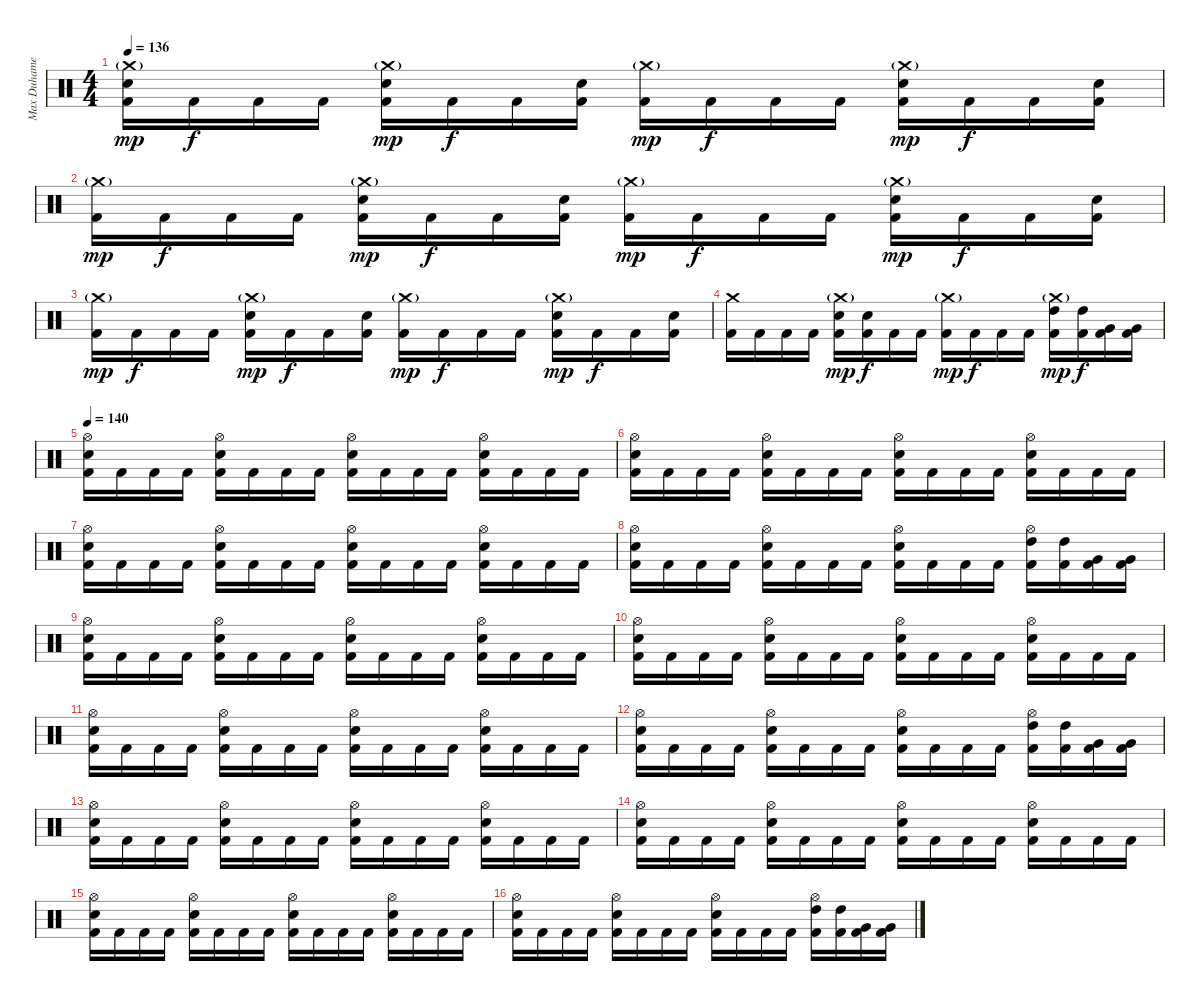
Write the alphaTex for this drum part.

\track ("Max Duhamel (Drums)" "Max Duhame") {instrument percussion}
\staff {score}
\articulation defaults
\ts (4 4)
\tempo 136
\clef neutral
\ks c
("Crash medium (hit)"{g} "Electric Snare (hit)" "Kick (hit) 2").16{dy mp} "Kick (hit) 2".16{dy f} "Kick (hit) 2".16 "Kick (hit) 2".16 ("Crash medium (hit)"{g} "Electric Snare (hit)" "Kick (hit) 2").16{dy mp} "Kick (hit) 2".16{dy f} "Kick (hit) 2".16 ("Electric Snare (hit)" "Kick (hit) 2").16 ("Crash medium (hit)"{g} "Kick (hit) 2").16{dy mp} "Kick (hit) 2".16{dy f} "Kick (hit) 2".16 "Kick (hit) 2".16 ("Crash medium (hit)"{g} "Electric Snare (hit)" "Kick (hit) 2").16{dy mp} "Kick (hit) 2".16{dy f} "Kick (hit) 2".16 ("Electric Snare (hit)" "Kick (hit) 2").16 |
("Crash medium (hit)"{g} "Kick (hit) 2").16{dy mp} "Kick (hit) 2".16{dy f} "Kick (hit) 2".16 "Kick (hit) 2".16 ("Crash medium (hit)"{g} "Electric Snare (hit)" "Kick (hit) 2").16{dy mp} "Kick (hit) 2".16{dy f} "Kick (hit) 2".16 ("Electric Snare (hit)" "Kick (hit) 2").16 ("Crash medium (hit)"{g} "Kick (hit) 2").16{dy mp} "Kick (hit) 2".16{dy f} "Kick (hit) 2".16 "Kick (hit) 2".16 ("Crash medium (hit)"{g} "Electric Snare (hit)" "Kick (hit) 2").16{dy mp} "Kick (hit) 2".16{dy f} "Kick (hit) 2".16 ("Electric Snare (hit)" "Kick (hit) 2").16 |
("Crash medium (hit)"{g} "Kick (hit) 2").16{dy mp} "Kick (hit) 2".16{dy f} "Kick (hit) 2".16 "Kick (hit) 2".16 ("Crash medium (hit)"{g} "Electric Snare (hit)" "Kick (hit) 2").16{dy mp} "Kick (hit) 2".16{dy f} "Kick (hit) 2".16 ("Electric Snare (hit)" "Kick (hit) 2").16 ("Crash medium (hit)"{g} "Kick (hit) 2").16{dy mp} "Kick (hit) 2".16{dy f} "Kick (hit) 2".16 "Kick (hit) 2".16 ("Crash medium (hit)"{g} "Electric Snare (hit)" "Kick (hit) 2").16{dy mp} "Kick (hit) 2".16{dy f} "Kick (hit) 2".16 ("Electric Snare (hit)" "Kick (hit) 2").16 |
("Crash medium (hit)" "Kick (hit) 2").16 "Kick (hit) 2".16 "Kick (hit) 2".16 "Kick (hit) 2".16 ("Crash medium (hit)"{g} "Electric Snare (hit)" "Kick (hit) 2").16{dy mp} ("Electric Snare (hit)" "Kick (hit) 2").16{dy f} "Kick (hit) 2".16 "Kick (hit) 2".16 ("Crash medium (hit)"{g} "Kick (hit) 2").16{dy mp} "Kick (hit) 2".16{dy f} "Kick (hit) 2".16 "Kick (hit) 2".16 ("Crash medium (hit)"{g} "High Tom (hit)" "Kick (hit) 2").16{dy mp} ("High Tom (hit)" "Kick (hit) 2").16{dy f} ("Very Low Tom (hit)" "Kick (hit) 2").16 ("Very Low Tom (hit)" "Kick (hit) 2").16 |
\tempo 140
("Hi-Hat (open)" "Electric Snare (hit)" "Kick (hit) 2").16 "Kick (hit) 2".16 "Kick (hit) 2".16 "Kick (hit) 2".16 ("Hi-Hat (open)" "Electric Snare (hit)" "Kick (hit) 2").16 "Kick (hit) 2".16 "Kick (hit) 2".16 "Kick (hit) 2".16 ("Hi-Hat (open)" "Electric Snare (hit)" "Kick (hit) 2").16 "Kick (hit) 2".16 "Kick (hit) 2".16 "Kick (hit) 2".16 ("Hi-Hat (open)" "Electric Snare (hit)" "Kick (hit) 2").16 "Kick (hit) 2".16 "Kick (hit) 2".16 "Kick (hit) 2".16 |
("Hi-Hat (open)" "Electric Snare (hit)" "Kick (hit) 2").16 "Kick (hit) 2".16 "Kick (hit) 2".16 "Kick (hit) 2".16 ("Hi-Hat (open)" "Electric Snare (hit)" "Kick (hit) 2").16 "Kick (hit) 2".16 "Kick (hit) 2".16 "Kick (hit) 2".16 ("Hi-Hat (open)" "Electric Snare (hit)" "Kick (hit) 2").16 "Kick (hit) 2".16 "Kick (hit) 2".16 "Kick (hit) 2".16 ("Hi-Hat (open)" "Electric Snare (hit)" "Kick (hit) 2").16 "Kick (hit) 2".16 "Kick (hit) 2".16 "Kick (hit) 2".16 |
("Hi-Hat (open)" "Electric Snare (hit)" "Kick (hit) 2").16 "Kick (hit) 2".16 "Kick (hit) 2".16 "Kick (hit) 2".16 ("Hi-Hat (open)" "Electric Snare (hit)" "Kick (hit) 2").16 "Kick (hit) 2".16 "Kick (hit) 2".16 "Kick (hit) 2".16 ("Hi-Hat (open)" "Electric Snare (hit)" "Kick (hit) 2").16 "Kick (hit) 2".16 "Kick (hit) 2".16 "Kick (hit) 2".16 ("Hi-Hat (open)" "Electric Snare (hit)" "Kick (hit) 2").16 "Kick (hit) 2".16 "Kick (hit) 2".16 "Kick (hit) 2".16 |
("Hi-Hat (open)" "Electric Snare (hit)" "Kick (hit) 2").16 "Kick (hit) 2".16 "Kick (hit) 2".16 "Kick (hit) 2".16 ("Hi-Hat (open)" "Electric Snare (hit)" "Kick (hit) 2").16 "Kick (hit) 2".16 "Kick (hit) 2".16 "Kick (hit) 2".16 ("Hi-Hat (open)" "Electric Snare (hit)" "Kick (hit) 2").16 "Kick (hit) 2".16 "Kick (hit) 2".16 "Kick (hit) 2".16 ("Hi-Hat (open)" "High Tom (hit)" "Kick (hit) 2").16 ("High Tom (hit)" "Kick (hit) 2").16 ("Very Low Tom (hit)" "Kick (hit) 2").16 ("Very Low Tom (hit)" "Kick (hit) 2").16 |
("Hi-Hat (open)" "Electric Snare (hit)" "Kick (hit) 2").16 "Kick (hit) 2".16 "Kick (hit) 2".16 "Kick (hit) 2".16 ("Hi-Hat (open)" "Electric Snare (hit)" "Kick (hit) 2").16 "Kick (hit) 2".16 "Kick (hit) 2".16 "Kick (hit) 2".16 ("Hi-Hat (open)" "Electric Snare (hit)" "Kick (hit) 2").16 "Kick (hit) 2".16 "Kick (hit) 2".16 "Kick (hit) 2".16 ("Hi-Hat (open)" "Electric Snare (hit)" "Kick (hit) 2").16 "Kick (hit) 2".16 "Kick (hit) 2".16 "Kick (hit) 2".16 |
("Hi-Hat (open)" "Electric Snare (hit)" "Kick (hit) 2").16 "Kick (hit) 2".16 "Kick (hit) 2".16 "Kick (hit) 2".16 ("Hi-Hat (open)" "Electric Snare (hit)" "Kick (hit) 2").16 "Kick (hit) 2".16 "Kick (hit) 2".16 "Kick (hit) 2".16 ("Hi-Hat (open)" "Electric Snare (hit)" "Kick (hit) 2").16 "Kick (hit) 2".16 "Kick (hit) 2".16 "Kick (hit) 2".16 ("Hi-Hat (open)" "Electric Snare (hit)" "Kick (hit) 2").16 "Kick (hit) 2".16 "Kick (hit) 2".16 "Kick (hit) 2".16 |
("Hi-Hat (open)" "Electric Snare (hit)" "Kick (hit) 2").16 "Kick (hit) 2".16 "Kick (hit) 2".16 "Kick (hit) 2".16 ("Hi-Hat (open)" "Electric Snare (hit)" "Kick (hit) 2").16 "Kick (hit) 2".16 "Kick (hit) 2".16 "Kick (hit) 2".16 ("Hi-Hat (open)" "Electric Snare (hit)" "Kick (hit) 2").16 "Kick (hit) 2".16 "Kick (hit) 2".16 "Kick (hit) 2".16 ("Hi-Hat (open)" "Electric Snare (hit)" "Kick (hit) 2").16 "Kick (hit) 2".16 "Kick (hit) 2".16 "Kick (hit) 2".16 |
("Hi-Hat (open)" "Electric Snare (hit)" "Kick (hit) 2").16 "Kick (hit) 2".16 "Kick (hit) 2".16 "Kick (hit) 2".16 ("Hi-Hat (open)" "Electric Snare (hit)" "Kick (hit) 2").16 "Kick (hit) 2".16 "Kick (hit) 2".16 "Kick (hit) 2".16 ("Hi-Hat (open)" "Electric Snare (hit)" "Kick (hit) 2").16 "Kick (hit) 2".16 "Kick (hit) 2".16 "Kick (hit) 2".16 ("Hi-Hat (open)" "High Tom (hit)" "Kick (hit) 2").16 ("High Tom (hit)" "Kick (hit) 2").16 ("Very Low Tom (hit)" "Kick (hit) 2").16 ("Very Low Tom (hit)" "Kick (hit) 2").16 |
("Hi-Hat (open)" "Electric Snare (hit)" "Kick (hit) 2").16 "Kick (hit) 2".16 "Kick (hit) 2".16 "Kick (hit) 2".16 ("Hi-Hat (open)" "Electric Snare (hit)" "Kick (hit) 2").16 "Kick (hit) 2".16 "Kick (hit) 2".16 "Kick (hit) 2".16 ("Hi-Hat (open)" "Electric Snare (hit)" "Kick (hit) 2").16 "Kick (hit) 2".16 "Kick (hit) 2".16 "Kick (hit) 2".16 ("Hi-Hat (open)" "Electric Snare (hit)" "Kick (hit) 2").16 "Kick (hit) 2".16 "Kick (hit) 2".16 "Kick (hit) 2".16 |
("Hi-Hat (open)" "Electric Snare (hit)" "Kick (hit) 2").16 "Kick (hit) 2".16 "Kick (hit) 2".16 "Kick (hit) 2".16 ("Hi-Hat (open)" "Electric Snare (hit)" "Kick (hit) 2").16 "Kick (hit) 2".16 "Kick (hit) 2".16 "Kick (hit) 2".16 ("Hi-Hat (open)" "Electric Snare (hit)" "Kick (hit) 2").16 "Kick (hit) 2".16 "Kick (hit) 2".16 "Kick (hit) 2".16 ("Hi-Hat (open)" "Electric Snare (hit)" "Kick (hit) 2").16 "Kick (hit) 2".16 "Kick (hit) 2".16 "Kick (hit) 2".16 |
("Hi-Hat (open)" "Electric Snare (hit)" "Kick (hit) 2").16 "Kick (hit) 2".16 "Kick (hit) 2".16 "Kick (hit) 2".16 ("Hi-Hat (open)" "Electric Snare (hit)" "Kick (hit) 2").16 "Kick (hit) 2".16 "Kick (hit) 2".16 "Kick (hit) 2".16 ("Hi-Hat (open)" "Electric Snare (hit)" "Kick (hit) 2").16 "Kick (hit) 2".16 "Kick (hit) 2".16 "Kick (hit) 2".16 ("Hi-Hat (open)" "Electric Snare (hit)" "Kick (hit) 2").16 "Kick (hit) 2".16 "Kick (hit) 2".16 "Kick (hit) 2".16 |
("Hi-Hat (open)" "Electric Snare (hit)" "Kick (hit) 2").16 "Kick (hit) 2".16 "Kick (hit) 2".16 "Kick (hit) 2".16 ("Hi-Hat (open)" "Electric Snare (hit)" "Kick (hit) 2").16 "Kick (hit) 2".16 "Kick (hit) 2".16 "Kick (hit) 2".16 ("Hi-Hat (open)" "Electric Snare (hit)" "Kick (hit) 2").16 "Kick (hit) 2".16 "Kick (hit) 2".16 "Kick (hit) 2".16 ("Hi-Hat (open)" "High Tom (hit)" "Kick (hit) 2").16 ("High Tom (hit)" "Kick (hit) 2").16 ("Very Low Tom (hit)" "Kick (hit) 2").16 ("Very Low Tom (hit)" "Kick (hit) 2").16
